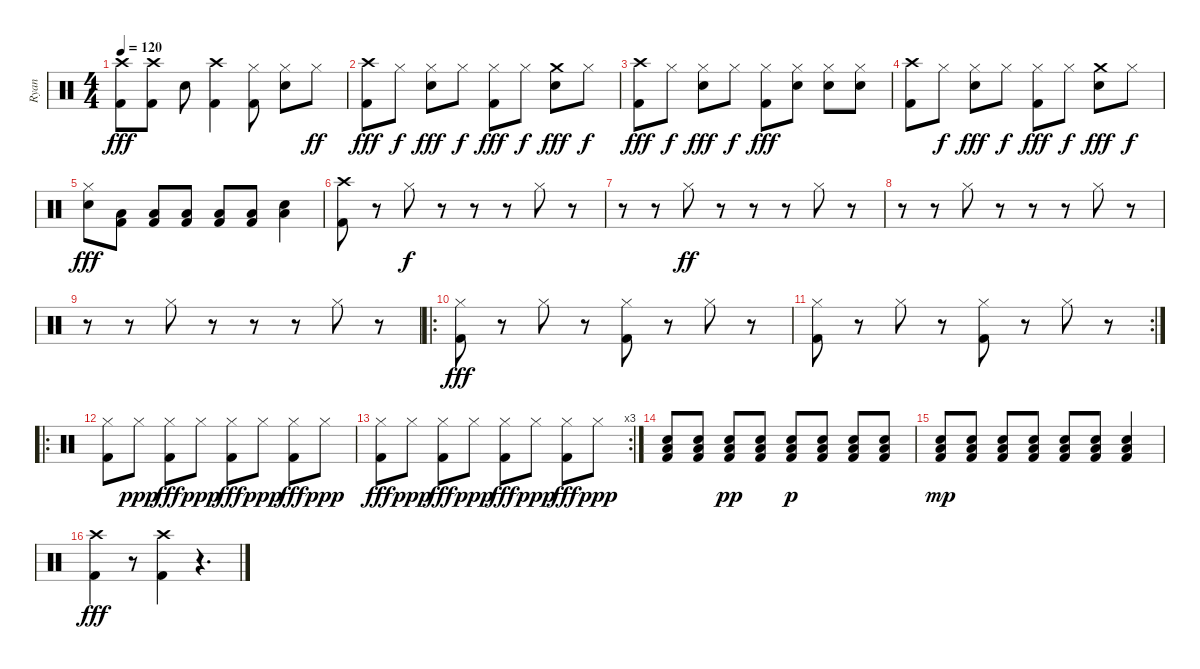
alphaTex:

\track ("Ryan" "Ryan") {instrument percussion}
\staff {score}
\articulation defaults
\ts (4 4)
\tempo 120
\clef neutral
\ks c
("Crash high (hit)" "Kick (hit) 2").8{dy fff} ("Crash high (hit)" "Kick (hit) 2").8 "Snare (hit) 2".8 ("Crash high (hit)" "Kick (hit) 2").4 ("Hi-Hat (closed)" "Kick (hit) 2").8 ("Hi-Hat (closed)" "Snare (hit) 2").8 "Hi-Hat (closed)".8{dy ff} |
("Crash high (hit)" "Kick (hit) 2").8{dy fff} "Hi-Hat (closed)".8{dy f} ("Hi-Hat (closed)" "Snare (hit) 2").8{dy fff} "Hi-Hat (closed)".8{dy f} ("Hi-Hat (closed)" "Kick (hit) 2").8{dy fff} "Hi-Hat (closed)".8{dy f} ("Crash medium (hit)" "Snare (hit) 2").8{dy fff} "Hi-Hat (closed)".8{dy f} |
("Crash high (hit)" "Kick (hit) 2").8{dy fff} "Hi-Hat (closed)".8{dy f} ("Hi-Hat (closed)" "Snare (hit) 2").8{dy fff} "Hi-Hat (closed)".8{dy f} ("Hi-Hat (closed)" "Kick (hit) 2").8{dy fff} ("Hi-Hat (closed)" "Snare (hit) 2").8 ("Hi-Hat (closed)" "Snare (hit) 2").8 ("Hi-Hat (closed)" "Snare (hit) 2").8 |
("Crash high (hit)" "Kick (hit) 2").8 "Hi-Hat (closed)".8{dy f} ("Hi-Hat (closed)" "Snare (hit) 2").8{dy fff} "Hi-Hat (closed)".8{dy f} ("Hi-Hat (closed)" "Kick (hit) 2").8{dy fff} "Hi-Hat (closed)".8{dy f} ("Crash medium (hit)" "Snare (hit) 2").8{dy fff} "Hi-Hat (closed)".8{dy f} |
("Hi-Hat (closed)" "Snare (hit) 2").8{dy fff} ("Low Floor Tom (hit)" "Kick (hit) 2").8 ("Low Floor Tom (hit)" "Kick (hit) 2").8 ("Low Floor Tom (hit)" "Kick (hit) 2").8 ("Low Floor Tom (hit)" "Kick (hit) 2").8 ("Low Floor Tom (hit)" "Kick (hit) 2").8 ("Low Floor Tom (hit)" "Snare (hit) 2").4 |
("Crash high (hit)" "Kick (hit) 2").8 r.8 "Hi-Hat (closed)".8{dy f} r.8 r.8 r.8 "Hi-Hat (closed)".8 r.8 |
r.8 r.8 "Hi-Hat (closed)".8{dy ff} r.8 r.8 r.8 "Hi-Hat (closed)".8 r.8 |
r.8 r.8 "Hi-Hat (closed)".8 r.8 r.8 r.8 "Hi-Hat (closed)".8 r.8 |
r.8 r.8 "Hi-Hat (closed)".8 r.8 r.8 r.8 "Hi-Hat (closed)".8 r.8 |
\ro
("Hi-Hat (closed)" "Kick (hit) 2").8{dy fff} r.8 "Hi-Hat (closed)".8 r.8 ("Hi-Hat (closed)" "Kick (hit) 2").8 r.8 "Hi-Hat (closed)".8 r.8 |
\rc 2
("Hi-Hat (closed)" "Kick (hit) 2").8 r.8 "Hi-Hat (closed)".8 r.8 ("Hi-Hat (closed)" "Kick (hit) 2").8 r.8 "Hi-Hat (closed)".8 r.8 |
\ro
("Hi-Hat (closed)" "Kick (hit) 2").8 "Hi-Hat (closed)".8{dy ppp} ("Hi-Hat (closed)" "Kick (hit) 2").8{dy fff} "Hi-Hat (closed)".8{dy ppp} ("Hi-Hat (closed)" "Kick (hit) 2").8{dy fff} "Hi-Hat (closed)".8{dy ppp} ("Hi-Hat (closed)" "Kick (hit) 2").8{dy fff} "Hi-Hat (closed)".8{dy ppp} |
\rc 3
("Hi-Hat (closed)" "Kick (hit) 2").8{dy fff} "Hi-Hat (closed)".8{dy ppp} ("Hi-Hat (closed)" "Kick (hit) 2").8{dy fff} "Hi-Hat (closed)".8{dy ppp} ("Hi-Hat (closed)" "Kick (hit) 2").8{dy fff} "Hi-Hat (closed)".8{dy ppp} ("Hi-Hat (closed)" "Kick (hit) 2").8{dy fff} "Hi-Hat (closed)".8{dy ppp} |
("Snare (hit) 2" "Low Floor Tom (hit)" "Kick (hit) 2").8 ("Snare (hit) 2" "Low Floor Tom (hit)" "Kick (hit) 2").8 ("Snare (hit) 2" "Low Floor Tom (hit)" "Kick (hit) 2").8{dy pp} ("Snare (hit) 2" "Low Floor Tom (hit)" "Kick (hit) 2").8 ("Snare (hit) 2" "Low Floor Tom (hit)" "Kick (hit) 2").8{dy p} ("Snare (hit) 2" "Low Floor Tom (hit)" "Kick (hit) 2").8 ("Snare (hit) 2" "Low Floor Tom (hit)" "Kick (hit) 2").8 ("Snare (hit) 2" "Low Floor Tom (hit)" "Kick (hit) 2").8 |
("Snare (hit) 2" "Low Floor Tom (hit)" "Kick (hit) 2").8{dy mp} ("Snare (hit) 2" "Low Floor Tom (hit)" "Kick (hit) 2").8 ("Snare (hit) 2" "Low Floor Tom (hit)" "Kick (hit) 2").8 ("Snare (hit) 2" "Low Floor Tom (hit)" "Kick (hit) 2").8 ("Snare (hit) 2" "Low Floor Tom (hit)" "Kick (hit) 2").8 ("Snare (hit) 2" "Low Floor Tom (hit)" "Kick (hit) 2").8 ("Snare (hit) 2" "Low Floor Tom (hit)" "Kick (hit) 2").4 |
("Crash high (hit)" "Kick (hit) 2").4{dy fff} r.8 ("Crash high (hit)" "Kick (hit) 2").4 r.4{d}
